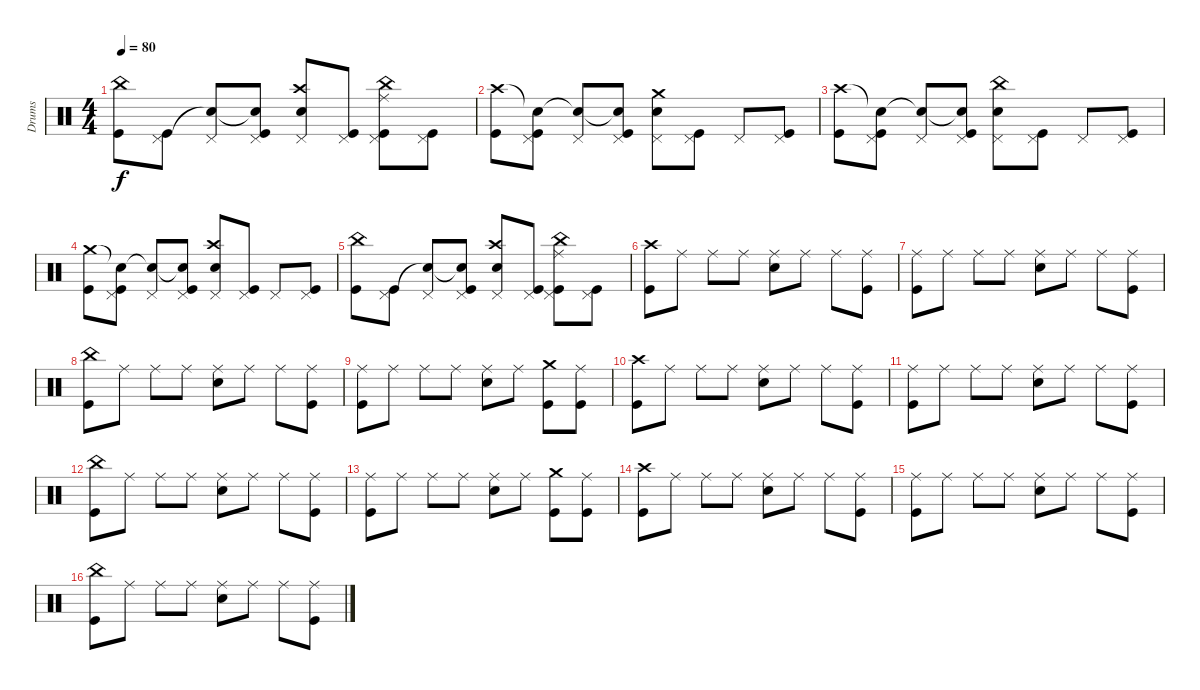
\track ("Drums" "Drums") {instrument percussion}
\staff {score}
\articulation defaults
\ts (4 4)
\tempo 80
\clef neutral
\ks c
("China (hit)" "Kick (hit)").8{dy f} ("Pedal Hi-Hat (hit)" "Kick (hit)").8 ("Snare (hit)"{t} "Pedal Hi-Hat (hit)").8 ("Snare (hit)"{t} "Pedal Hi-Hat (hit)" "Kick (hit)").8 ("Crash high (hit)" "Pedal Hi-Hat (hit)" "Electric Snare (hit)").8 ("Pedal Hi-Hat (hit)" "Kick (hit)").8 ("China (hit)" "Pedal Hi-Hat (hit)" "Ride (middle)" "Kick (hit)").8 ("Pedal Hi-Hat (hit)" "Kick (hit)").8 |
("Crash high (hit)" "Kick (hit)").8 ("Snare (hit)"{t} "Pedal Hi-Hat (hit)" "Kick (hit)").8 ("Snare (hit)"{t} "Pedal Hi-Hat (hit)").8 ("Snare (hit)"{t} "Pedal Hi-Hat (hit)" "Kick (hit)").8 ("Crash medium (hit)" "Pedal Hi-Hat (hit)" "Electric Snare (hit)").8 ("Pedal Hi-Hat (hit)" "Kick (hit)").8 "Pedal Hi-Hat (hit)".8 ("Pedal Hi-Hat (hit)" "Kick (hit)").8 |
("Crash high (hit)" "Kick (hit)").8 ("Snare (hit)"{t} "Pedal Hi-Hat (hit)" "Kick (hit)").8 ("Snare (hit)"{t} "Pedal Hi-Hat (hit)").8 ("Snare (hit)"{t} "Pedal Hi-Hat (hit)" "Kick (hit)").8 ("China (hit)" "Pedal Hi-Hat (hit)" "Electric Snare (hit)").8 ("Pedal Hi-Hat (hit)" "Kick (hit)").8 "Pedal Hi-Hat (hit)".8 ("Pedal Hi-Hat (hit)" "Kick (hit)").8 |
("Crash medium (hit)" "Kick (hit)").8 ("Snare (hit)"{t} "Pedal Hi-Hat (hit)" "Kick (hit)").8 ("Snare (hit)"{t} "Pedal Hi-Hat (hit)").8 ("Snare (hit)"{t} "Pedal Hi-Hat (hit)" "Kick (hit)").8 ("Crash high (hit)" "Pedal Hi-Hat (hit)" "Electric Snare (hit)").8 ("Pedal Hi-Hat (hit)" "Kick (hit)").8 "Pedal Hi-Hat (hit)".8 ("Pedal Hi-Hat (hit)" "Kick (hit)").8 |
("China (hit)" "Kick (hit)").8 ("Pedal Hi-Hat (hit)" "Kick (hit)").8 ("Snare (hit)"{t} "Pedal Hi-Hat (hit)").8 ("Snare (hit)"{t} "Pedal Hi-Hat (hit)" "Kick (hit)").8 ("Crash high (hit)" "Pedal Hi-Hat (hit)" "Electric Snare (hit)").8 ("Pedal Hi-Hat (hit)" "Kick (hit)").8 ("China (hit)" "Pedal Hi-Hat (hit)" "Ride (middle)" "Kick (hit)").8 ("Pedal Hi-Hat (hit)" "Kick (hit)").8 |
("Crash high (hit)" "Kick (hit)").8 "Ride (middle)".8 "Ride (middle)".8 "Ride (middle)".8 ("Ride (middle)" "Electric Snare (hit)").8 "Ride (middle)".8 "Ride (middle)".8 ("Ride (middle)" "Kick (hit)").8 |
("Ride (middle)" "Kick (hit)").8 "Ride (middle)".8 "Ride (middle)".8 "Ride (middle)".8 ("Ride (middle)" "Electric Snare (hit)").8 "Ride (middle)".8 "Ride (middle)".8 ("Ride (middle)" "Kick (hit)").8 |
("China (hit)" "Kick (hit)").8 "Ride (middle)".8 "Ride (middle)".8 "Ride (middle)".8 ("Ride (middle)" "Electric Snare (hit)").8 "Ride (middle)".8 "Ride (middle)".8 ("Ride (middle)" "Kick (hit)").8 |
("Ride (middle)" "Kick (hit)").8 "Ride (middle)".8 "Ride (middle)".8 "Ride (middle)".8 ("Ride (middle)" "Electric Snare (hit)").8 "Ride (middle)".8 ("Crash medium (hit)" "Kick (hit)").8 ("Ride (middle)" "Kick (hit)").8 |
("Crash high (hit)" "Kick (hit)").8 "Ride (middle)".8 "Ride (middle)".8 "Ride (middle)".8 ("Ride (middle)" "Electric Snare (hit)").8 "Ride (middle)".8 "Ride (middle)".8 ("Ride (middle)" "Kick (hit)").8 |
("Ride (middle)" "Kick (hit)").8 "Ride (middle)".8 "Ride (middle)".8 "Ride (middle)".8 ("Ride (middle)" "Electric Snare (hit)").8 "Ride (middle)".8 "Ride (middle)".8 ("Ride (middle)" "Kick (hit)").8 |
("China (hit)" "Kick (hit)").8 "Ride (middle)".8 "Ride (middle)".8 "Ride (middle)".8 ("Ride (middle)" "Electric Snare (hit)").8 "Ride (middle)".8 "Ride (middle)".8 ("Ride (middle)" "Kick (hit)").8 |
("Ride (middle)" "Kick (hit)").8 "Ride (middle)".8 "Ride (middle)".8 "Ride (middle)".8 ("Ride (middle)" "Electric Snare (hit)").8 "Ride (middle)".8 ("Crash medium (hit)" "Kick (hit)").8 ("Ride (middle)" "Kick (hit)").8 |
("Crash high (hit)" "Kick (hit)").8 "Ride (middle)".8 "Ride (middle)".8 "Ride (middle)".8 ("Ride (middle)" "Electric Snare (hit)").8 "Ride (middle)".8 "Ride (middle)".8 ("Ride (middle)" "Kick (hit)").8 |
("Ride (middle)" "Kick (hit)").8 "Ride (middle)".8 "Ride (middle)".8 "Ride (middle)".8 ("Ride (middle)" "Electric Snare (hit)").8 "Ride (middle)".8 "Ride (middle)".8 ("Ride (middle)" "Kick (hit)").8 |
("China (hit)" "Kick (hit)").8 "Ride (middle)".8 "Ride (middle)".8 "Ride (middle)".8 ("Ride (middle)" "Electric Snare (hit)").8 "Ride (middle)".8 "Ride (middle)".8 ("Ride (middle)" "Kick (hit)").8
